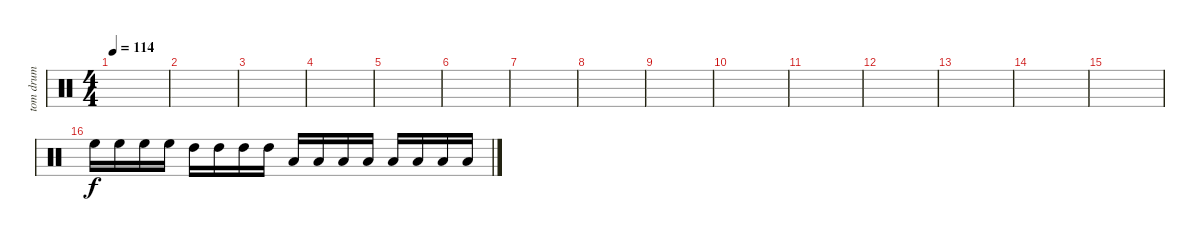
\track ("tom drum" "tom drum") {instrument percussion}
\staff {score}
\articulation defaults
\ts (4 4)
\tempo 114
\clef neutral
\ks c
|
|
|
|
|
|
|
|
|
|
|
|
|
|
|
"High Floor Tom (hit)".16 "High Floor Tom (hit)".16 "High Floor Tom (hit)".16 "High Floor Tom (hit)".16 "High Tom (hit)".16 "High Tom (hit)".16 "High Tom (hit)".16 "High Tom (hit)".16 "Low Tom (hit)".16 "Low Tom (hit)".16 "Low Tom (hit)".16 "Low Tom (hit)".16 "Low Tom (hit)".16 "Low Tom (hit)".16 "Low Tom (hit)".16 "Low Tom (hit)".16
